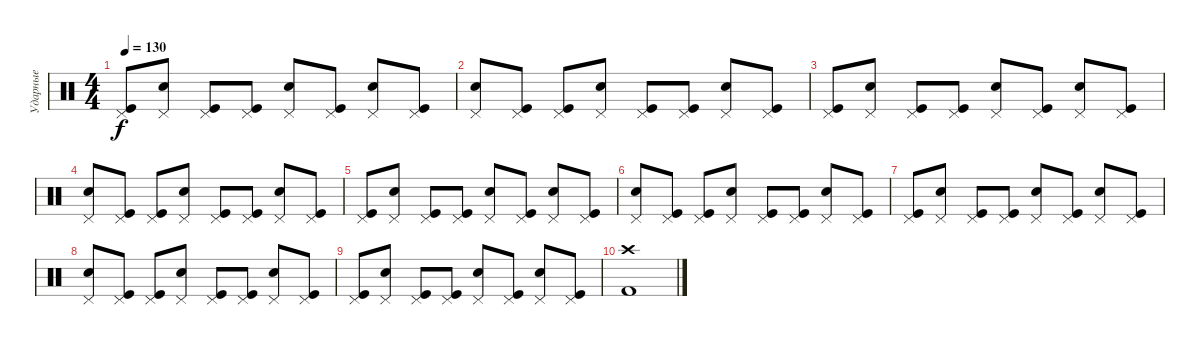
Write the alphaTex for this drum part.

\track ("Ударные" "Ударные") {instrument percussion}
\staff {score}
\articulation defaults
\ts (4 4)
\tempo 130
\clef neutral
\ks c
("Pedal Hi-Hat (hit)" "Kick (hit)").8{dy f} ("Pedal Hi-Hat (hit)" "Electric Snare (hit)").8 ("Pedal Hi-Hat (hit)" "Kick (hit)").8 ("Pedal Hi-Hat (hit)" "Kick (hit)").8 ("Pedal Hi-Hat (hit)" "Electric Snare (hit)").8 ("Pedal Hi-Hat (hit)" "Kick (hit)").8 ("Pedal Hi-Hat (hit)" "Electric Snare (hit)").8 ("Pedal Hi-Hat (hit)" "Kick (hit)").8 |
("Pedal Hi-Hat (hit)" "Electric Snare (hit)").8 ("Pedal Hi-Hat (hit)" "Kick (hit)").8 ("Pedal Hi-Hat (hit)" "Kick (hit)").8 ("Pedal Hi-Hat (hit)" "Electric Snare (hit)").8 ("Pedal Hi-Hat (hit)" "Kick (hit)").8 ("Pedal Hi-Hat (hit)" "Kick (hit)").8 ("Pedal Hi-Hat (hit)" "Electric Snare (hit)").8 ("Pedal Hi-Hat (hit)" "Kick (hit)").8 |
("Pedal Hi-Hat (hit)" "Kick (hit)").8 ("Pedal Hi-Hat (hit)" "Electric Snare (hit)").8 ("Pedal Hi-Hat (hit)" "Kick (hit)").8 ("Pedal Hi-Hat (hit)" "Kick (hit)").8 ("Pedal Hi-Hat (hit)" "Electric Snare (hit)").8 ("Pedal Hi-Hat (hit)" "Kick (hit)").8 ("Pedal Hi-Hat (hit)" "Electric Snare (hit)").8 ("Pedal Hi-Hat (hit)" "Kick (hit)").8 |
("Pedal Hi-Hat (hit)" "Electric Snare (hit)").8 ("Pedal Hi-Hat (hit)" "Kick (hit)").8 ("Pedal Hi-Hat (hit)" "Kick (hit)").8 ("Pedal Hi-Hat (hit)" "Electric Snare (hit)").8 ("Pedal Hi-Hat (hit)" "Kick (hit)").8 ("Pedal Hi-Hat (hit)" "Kick (hit)").8 ("Pedal Hi-Hat (hit)" "Electric Snare (hit)").8 ("Pedal Hi-Hat (hit)" "Kick (hit)").8 |
("Pedal Hi-Hat (hit)" "Kick (hit)").8 ("Pedal Hi-Hat (hit)" "Electric Snare (hit)").8 ("Pedal Hi-Hat (hit)" "Kick (hit)").8 ("Pedal Hi-Hat (hit)" "Kick (hit)").8 ("Pedal Hi-Hat (hit)" "Electric Snare (hit)").8 ("Pedal Hi-Hat (hit)" "Kick (hit)").8 ("Pedal Hi-Hat (hit)" "Electric Snare (hit)").8 ("Pedal Hi-Hat (hit)" "Kick (hit)").8 |
("Pedal Hi-Hat (hit)" "Electric Snare (hit)").8 ("Pedal Hi-Hat (hit)" "Kick (hit)").8 ("Pedal Hi-Hat (hit)" "Kick (hit)").8 ("Pedal Hi-Hat (hit)" "Electric Snare (hit)").8 ("Pedal Hi-Hat (hit)" "Kick (hit)").8 ("Pedal Hi-Hat (hit)" "Kick (hit)").8 ("Pedal Hi-Hat (hit)" "Electric Snare (hit)").8 ("Pedal Hi-Hat (hit)" "Kick (hit)").8 |
("Pedal Hi-Hat (hit)" "Kick (hit)").8 ("Pedal Hi-Hat (hit)" "Electric Snare (hit)").8 ("Pedal Hi-Hat (hit)" "Kick (hit)").8 ("Pedal Hi-Hat (hit)" "Kick (hit)").8 ("Pedal Hi-Hat (hit)" "Electric Snare (hit)").8 ("Pedal Hi-Hat (hit)" "Kick (hit)").8 ("Pedal Hi-Hat (hit)" "Electric Snare (hit)").8 ("Pedal Hi-Hat (hit)" "Kick (hit)").8 |
("Pedal Hi-Hat (hit)" "Electric Snare (hit)").8 ("Pedal Hi-Hat (hit)" "Kick (hit)").8 ("Pedal Hi-Hat (hit)" "Kick (hit)").8 ("Pedal Hi-Hat (hit)" "Electric Snare (hit)").8 ("Pedal Hi-Hat (hit)" "Kick (hit)").8 ("Pedal Hi-Hat (hit)" "Kick (hit)").8 ("Pedal Hi-Hat (hit)" "Electric Snare (hit)").8 ("Pedal Hi-Hat (hit)" "Kick (hit)").8 |
("Pedal Hi-Hat (hit)" "Kick (hit)").8 ("Pedal Hi-Hat (hit)" "Electric Snare (hit)").8 ("Pedal Hi-Hat (hit)" "Kick (hit)").8 ("Pedal Hi-Hat (hit)" "Kick (hit)").8 ("Pedal Hi-Hat (hit)" "Electric Snare (hit)").8 ("Pedal Hi-Hat (hit)" "Kick (hit)").8 ("Pedal Hi-Hat (hit)" "Electric Snare (hit)").8 ("Pedal Hi-Hat (hit)" "Kick (hit)").8 |
("Crash high (hit)" "Kick (hit) 2").1
